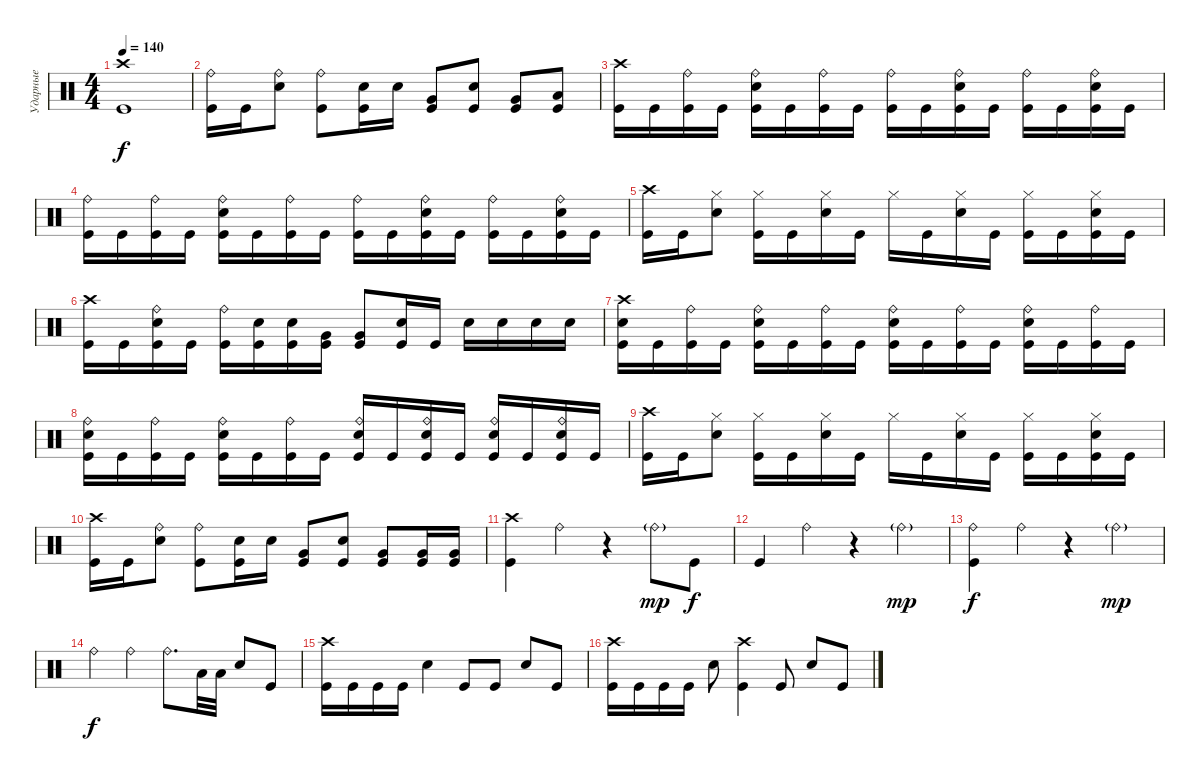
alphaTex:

\track ("Ударные" "Ударные") {instrument percussion}
\staff {score}
\articulation defaults
\ts (4 4)
\tempo 140
\clef neutral
\ks c
("Crash high (hit)" "Kick (hit)").1{dy f} |
("Ride (bell)" "Kick (hit)").16 "Kick (hit)".16 ("Ride (bell)" "Electric Snare (hit)").8 ("Ride (bell)" "Kick (hit)").8 ("Electric Snare (hit)" "Kick (hit)").16 "Electric Snare (hit)".16 ("Very Low Tom (hit)" "Kick (hit)").8 ("Electric Snare (hit)" "Kick (hit)").8 ("Very Low Tom (hit)" "Kick (hit)").8 ("Low Tom (hit)" "Kick (hit)").8 |
("Crash high (hit)" "Kick (hit)").16 "Kick (hit)".16 ("Ride (bell)" "Kick (hit)").16 "Kick (hit)".16 ("Ride (bell)" "Electric Snare (hit)" "Kick (hit)").16 "Kick (hit)".16 ("Ride (bell)" "Kick (hit)").16 "Kick (hit)".16 ("Ride (bell)" "Kick (hit)").16 "Kick (hit)".16 ("Ride (bell)" "Electric Snare (hit)" "Kick (hit)").16 "Kick (hit)".16 ("Ride (bell)" "Kick (hit)").16 "Kick (hit)".16 ("Ride (bell)" "Electric Snare (hit)" "Kick (hit)").16 "Kick (hit)".16 |
("Ride (bell)" "Kick (hit)").16 "Kick (hit)".16 ("Ride (bell)" "Kick (hit)").16 "Kick (hit)".16 ("Ride (bell)" "Electric Snare (hit)" "Kick (hit)").16 "Kick (hit)".16 ("Ride (bell)" "Kick (hit)").16 "Kick (hit)".16 ("Ride (bell)" "Kick (hit)").16 "Kick (hit)".16 ("Ride (bell)" "Electric Snare (hit)" "Kick (hit)").16 "Kick (hit)".16 ("Ride (bell)" "Kick (hit)").16 "Kick (hit)".16 ("Ride (bell)" "Electric Snare (hit)" "Kick (hit)").16 "Kick (hit)".16 |
("Crash high (hit)" "Kick (hit)").16 "Kick (hit)".16 ("Hi-Hat (closed)" "Electric Snare (hit)").8 ("Hi-Hat (closed)" "Kick (hit)").16 "Kick (hit)".16 ("Hi-Hat (closed)" "Electric Snare (hit)").16 "Kick (hit)".16 "Hi-Hat (closed)".16 "Kick (hit)".16 ("Hi-Hat (closed)" "Electric Snare (hit)").16 "Kick (hit)".16 ("Hi-Hat (closed)" "Kick (hit)").16 "Kick (hit)".16 ("Hi-Hat (closed)" "Electric Snare (hit)" "Kick (hit)").16 "Kick (hit)".16 |
("Crash high (hit)" "Kick (hit)").16 "Kick (hit)".16 ("Ride (bell)" "Electric Snare (hit)" "Kick (hit)").16 "Kick (hit)".16 ("Ride (bell)" "Kick (hit)").16 ("Electric Snare (hit)" "Kick (hit)").16 ("Electric Snare (hit)" "Kick (hit)").16 ("Very Low Tom (hit)" "Kick (hit)").16 ("Very Low Tom (hit)" "Kick (hit)").8 ("Electric Snare (hit)" "Kick (hit)").16 "Kick (hit)".16 "Electric Snare (hit)".16 "Electric Snare (hit)".16 "Electric Snare (hit)".16 "Electric Snare (hit)".16 |
("Crash high (hit)" "Electric Snare (hit)" "Kick (hit)").16 "Kick (hit)".16 ("Ride (bell)" "Kick (hit)").16 "Kick (hit)".16 ("Ride (bell)" "Electric Snare (hit)" "Kick (hit)").16 "Kick (hit)".16 ("Ride (bell)" "Kick (hit)").16 "Kick (hit)".16 ("Ride (bell)" "Electric Snare (hit)" "Kick (hit)").16 "Kick (hit)".16 ("Ride (bell)" "Kick (hit)").16 "Kick (hit)".16 ("Ride (bell)" "Electric Snare (hit)" "Kick (hit)").16 "Kick (hit)".16 ("Ride (bell)" "Kick (hit)").16 "Kick (hit)".16 |
("Ride (bell)" "Electric Snare (hit)" "Kick (hit)").16 "Kick (hit)".16 ("Ride (bell)" "Kick (hit)").16 "Kick (hit)".16 ("Ride (bell)" "Electric Snare (hit)" "Kick (hit)").16 "Kick (hit)".16 ("Ride (bell)" "Kick (hit)").16 "Kick (hit)".16 ("Ride (bell)" "Electric Snare (hit)" "Kick (hit)").16 "Kick (hit)".16 ("Ride (bell)" "Electric Snare (hit)" "Kick (hit)").16 "Kick (hit)".16 ("Ride (bell)" "Electric Snare (hit)" "Kick (hit)").16 "Kick (hit)".16 ("Ride (bell)" "Electric Snare (hit)" "Kick (hit)").16 "Kick (hit)".16 |
("Crash high (hit)" "Kick (hit)").16 "Kick (hit)".16 ("Hi-Hat (closed)" "Electric Snare (hit)").8 ("Hi-Hat (closed)" "Kick (hit)").16 "Kick (hit)".16 ("Hi-Hat (closed)" "Electric Snare (hit)").16 "Kick (hit)".16 "Hi-Hat (closed)".16 "Kick (hit)".16 ("Hi-Hat (closed)" "Electric Snare (hit)").16 "Kick (hit)".16 ("Hi-Hat (closed)" "Kick (hit)").16 "Kick (hit)".16 ("Hi-Hat (closed)" "Electric Snare (hit)" "Kick (hit)").16 "Kick (hit)".16 |
("Crash high (hit)" "Kick (hit)").16 "Kick (hit)".16 ("Ride (bell)" "Electric Snare (hit)").8 ("Ride (bell)" "Kick (hit)").8 ("Electric Snare (hit)" "Kick (hit)").16 "Electric Snare (hit)".16 ("Very Low Tom (hit)" "Kick (hit)").8 ("Electric Snare (hit)" "Kick (hit)").8 ("Very Low Tom (hit)" "Kick (hit)").8 ("Very Low Tom (hit)" "Kick (hit)").16 ("Very Low Tom (hit)" "Kick (hit)").16 |
("Crash high (hit)" "Kick (hit)").4 "Ride (bell)".4 r.4 "Ride (bell)"{g}.8{dy mp} "Kick (hit)".8{dy f} |
"Kick (hit)".4 "Ride (bell)".4 r.4 "Ride (bell)"{g}.4{dy mp} |
("Ride (bell)" "Kick (hit)").4{dy f} "Ride (bell)".4 r.4 "Ride (bell)"{g}.4{dy mp} |
"Ride (bell)".4{dy f} "Ride (bell)".4 "Ride (bell)".8{d} "Low Tom (hit)".32 "Low Tom (hit)".32 "Electric Snare (hit)".8 "Kick (hit)".8 |
("Crash high (hit)" "Kick (hit)").16 "Kick (hit)".16 "Kick (hit)".16 "Kick (hit)".16 "Electric Snare (hit)".4 "Kick (hit)".8 "Kick (hit)".8 "Electric Snare (hit)".8 "Kick (hit)".8 |
("Crash high (hit)" "Kick (hit)").16 "Kick (hit)".16 "Kick (hit)".16 "Kick (hit)".16 "Electric Snare (hit)".8 ("Crash high (hit)" "Kick (hit)").4 "Kick (hit)".8 "Electric Snare (hit)".8 "Kick (hit)".8
